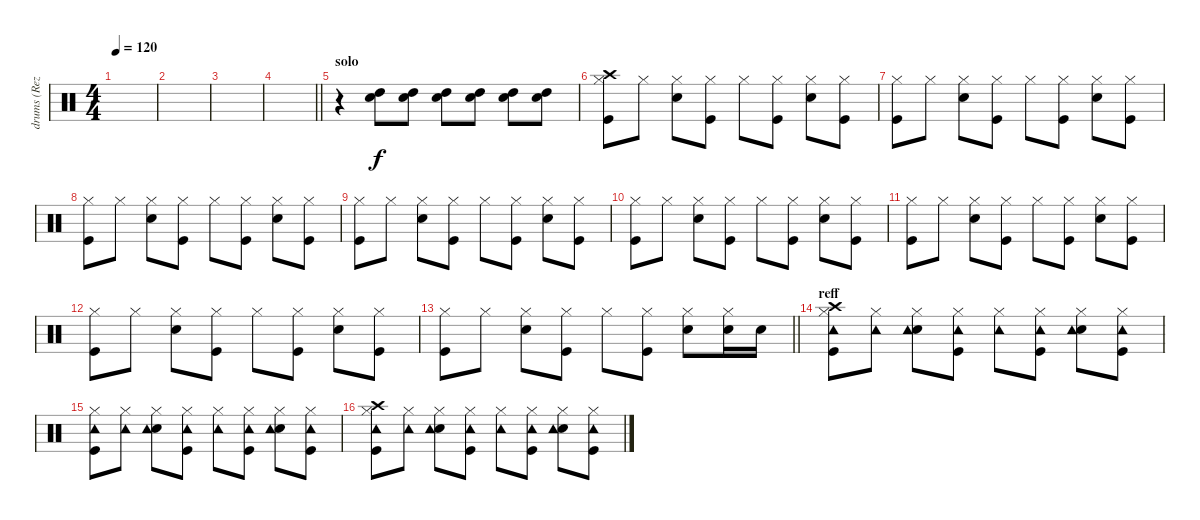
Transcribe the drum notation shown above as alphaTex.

\track ("drums (Reza)" "drums (Rez") {instrument percussion}
\staff {score}
\articulation defaults
\ts (4 4)
\tempo 120
\clef neutral
\ks c
|
|
|
\barLineRight lightlight
|
\section ("" "solo")
r.4 ("Snare (hit) 2" "High Tom (hit)").8 ("Snare (hit) 2" "High Tom (hit)").8 ("Snare (hit) 2" "High Tom (hit)").8 ("Snare (hit) 2" "High Tom (hit)").8 ("Snare (hit) 2" "High Tom (hit)").8 ("Snare (hit) 2" "High Tom (hit)").8 |
("Hi-Hat (closed)" "Kick (hit)" "Crash high (hit)").8 "Hi-Hat (closed)".8 ("Hi-Hat (closed)" "Snare (hit) 2").8 ("Hi-Hat (closed)" "Kick (hit)").8 "Hi-Hat (closed)".8 ("Hi-Hat (closed)" "Kick (hit)").8 ("Hi-Hat (closed)" "Snare (hit) 2").8 ("Hi-Hat (closed)" "Kick (hit)").8 |
("Hi-Hat (closed)" "Kick (hit)").8 "Hi-Hat (closed)".8 ("Hi-Hat (closed)" "Snare (hit) 2").8 ("Hi-Hat (closed)" "Kick (hit)").8 "Hi-Hat (closed)".8 ("Hi-Hat (closed)" "Kick (hit)").8 ("Hi-Hat (closed)" "Snare (hit) 2").8 ("Hi-Hat (closed)" "Kick (hit)").8 |
("Hi-Hat (closed)" "Kick (hit)").8 "Hi-Hat (closed)".8 ("Hi-Hat (closed)" "Snare (hit) 2").8 ("Hi-Hat (closed)" "Kick (hit)").8 "Hi-Hat (closed)".8 ("Hi-Hat (closed)" "Kick (hit)").8 ("Hi-Hat (closed)" "Snare (hit) 2").8 ("Hi-Hat (closed)" "Kick (hit)").8 |
("Hi-Hat (closed)" "Kick (hit)").8 "Hi-Hat (closed)".8 ("Hi-Hat (closed)" "Snare (hit) 2").8 ("Hi-Hat (closed)" "Kick (hit)").8 "Hi-Hat (closed)".8 ("Hi-Hat (closed)" "Kick (hit)").8 ("Hi-Hat (closed)" "Snare (hit) 2").8 ("Hi-Hat (closed)" "Kick (hit)").8 |
("Hi-Hat (closed)" "Kick (hit)").8 "Hi-Hat (closed)".8 ("Hi-Hat (closed)" "Snare (hit) 2").8 ("Hi-Hat (closed)" "Kick (hit)").8 "Hi-Hat (closed)".8 ("Hi-Hat (closed)" "Kick (hit)").8 ("Hi-Hat (closed)" "Snare (hit) 2").8 ("Hi-Hat (closed)" "Kick (hit)").8 |
("Hi-Hat (closed)" "Kick (hit)").8 "Hi-Hat (closed)".8 ("Hi-Hat (closed)" "Snare (hit) 2").8 ("Hi-Hat (closed)" "Kick (hit)").8 "Hi-Hat (closed)".8 ("Hi-Hat (closed)" "Kick (hit)").8 ("Hi-Hat (closed)" "Snare (hit) 2").8 ("Hi-Hat (closed)" "Kick (hit)").8 |
("Hi-Hat (closed)" "Kick (hit)").8 "Hi-Hat (closed)".8 ("Hi-Hat (closed)" "Snare (hit) 2").8 ("Hi-Hat (closed)" "Kick (hit)").8 "Hi-Hat (closed)".8 ("Hi-Hat (closed)" "Kick (hit)").8 ("Hi-Hat (closed)" "Snare (hit) 2").8 ("Hi-Hat (closed)" "Kick (hit)").8 |
\barLineRight lightlight
("Hi-Hat (closed)" "Kick (hit)").8 "Hi-Hat (closed)".8 ("Hi-Hat (closed)" "Snare (hit) 2").8 ("Hi-Hat (closed)" "Kick (hit)").8 "Hi-Hat (closed)".8 ("Hi-Hat (closed)" "Kick (hit)").8 ("Hi-Hat (closed)" "Snare (hit) 2").8 ("Hi-Hat (closed)" "Snare (hit) 2").16 "Snare (hit) 2".16 |
\section ("" "reff")
("Hi-Hat (closed)" "Kick (hit)" "Crash high (hit)" "Tambourine (hit)").8 ("Hi-Hat (closed)" "Tambourine (hit)").8 ("Hi-Hat (closed)" "Snare (hit) 2" "Tambourine (hit)").8 ("Hi-Hat (closed)" "Kick (hit)" "Tambourine (hit)").8 ("Hi-Hat (closed)" "Tambourine (hit)").8 ("Hi-Hat (closed)" "Kick (hit)" "Tambourine (hit)").8 ("Hi-Hat (closed)" "Snare (hit) 2" "Tambourine (hit)").8 ("Hi-Hat (closed)" "Kick (hit)" "Tambourine (hit)").8 |
("Hi-Hat (closed)" "Kick (hit)" "Tambourine (hit)").8 ("Hi-Hat (closed)" "Tambourine (hit)").8 ("Hi-Hat (closed)" "Snare (hit) 2" "Tambourine (hit)").8 ("Hi-Hat (closed)" "Kick (hit)" "Tambourine (hit)").8 ("Hi-Hat (closed)" "Tambourine (hit)").8 ("Hi-Hat (closed)" "Kick (hit)" "Tambourine (hit)").8 ("Hi-Hat (closed)" "Snare (hit) 2" "Tambourine (hit)").8 ("Hi-Hat (closed)" "Kick (hit)" "Tambourine (hit)").8 |
("Hi-Hat (closed)" "Kick (hit)" "Crash high (hit)" "Tambourine (hit)").8 ("Hi-Hat (closed)" "Tambourine (hit)").8 ("Hi-Hat (closed)" "Snare (hit) 2" "Tambourine (hit)").8 ("Hi-Hat (closed)" "Kick (hit)" "Tambourine (hit)").8 ("Hi-Hat (closed)" "Tambourine (hit)").8 ("Hi-Hat (closed)" "Kick (hit)" "Tambourine (hit)").8 ("Hi-Hat (closed)" "Snare (hit) 2" "Tambourine (hit)").8 ("Hi-Hat (closed)" "Kick (hit)" "Tambourine (hit)").8
